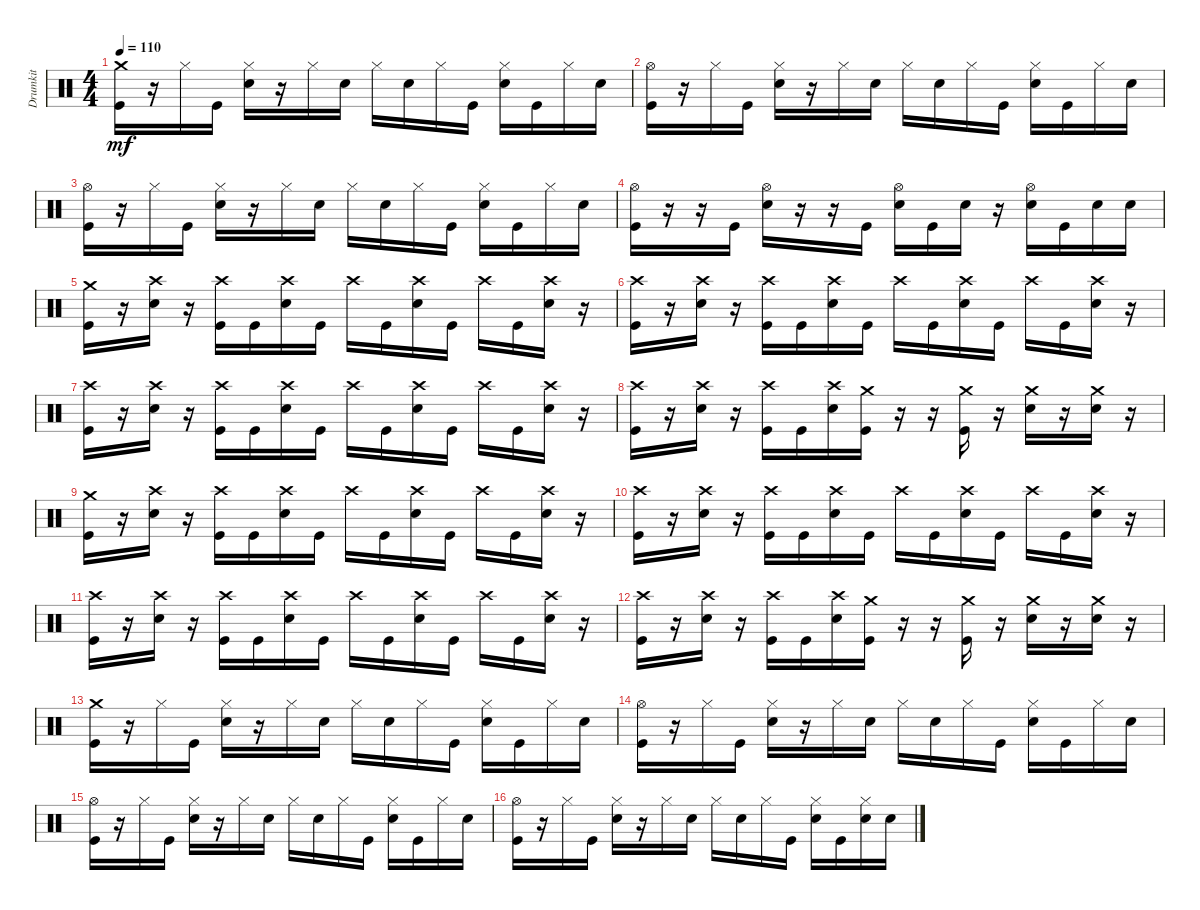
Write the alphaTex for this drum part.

\track ("Drumkit" "Drumkit") {instrument percussion}
\staff {score}
\articulation defaults
\ts (4 4)
\tempo 110
\clef neutral
\ks c
("Crash medium (hit)" "Kick (hit)").16{dy mf} r.16 "Hi-Hat (closed)".16 "Kick (hit)".16 ("Hi-Hat (closed)" "Snare (hit) 2").16 r.16 "Hi-Hat (closed)".16 "Snare (hit) 2".16 "Hi-Hat (closed)".16 "Snare (hit) 2".16 "Hi-Hat (closed)".16 "Kick (hit)".16 ("Hi-Hat (closed)" "Snare (hit) 2").16 "Kick (hit)".16 "Hi-Hat (closed)".16 "Snare (hit) 2".16 |
("Kick (hit)" "Hi-Hat (open)").16 r.16 "Hi-Hat (closed)".16 "Kick (hit)".16 ("Hi-Hat (closed)" "Snare (hit) 2").16 r.16 "Hi-Hat (closed)".16 "Snare (hit) 2".16 "Hi-Hat (closed)".16 "Snare (hit) 2".16 "Hi-Hat (closed)".16 "Kick (hit)".16 ("Hi-Hat (closed)" "Snare (hit) 2").16 "Kick (hit)".16 "Hi-Hat (closed)".16 "Snare (hit) 2".16 |
("Kick (hit)" "Hi-Hat (open)").16 r.16 "Hi-Hat (closed)".16 "Kick (hit)".16 ("Hi-Hat (closed)" "Snare (hit) 2").16 r.16 "Hi-Hat (closed)".16 "Snare (hit) 2".16 "Hi-Hat (closed)".16 "Snare (hit) 2".16 "Hi-Hat (closed)".16 "Kick (hit)".16 ("Hi-Hat (closed)" "Snare (hit) 2").16 "Kick (hit)".16 "Hi-Hat (closed)".16 "Snare (hit) 2".16 |
("Kick (hit)" "Hi-Hat (open)").16 r.16 r.16 "Kick (hit)".16 ("Hi-Hat (open)" "Snare (hit) 2").16 r.16 r.16 "Kick (hit)".16 ("Hi-Hat (open)" "Snare (hit) 2").16 "Kick (hit)".16 "Snare (hit) 2".16 r.16 ("Hi-Hat (open)" "Snare (hit) 2").16 "Kick (hit)".16 "Snare (hit) 2".16 "Snare (hit) 2".16 |
("Crash medium (hit)" "Kick (hit)").16 r.16 ("Crash high (hit)" "Snare (hit) 2").16 r.16 ("Crash high (hit)" "Kick (hit)").16 "Kick (hit)".16 ("Crash high (hit)" "Snare (hit) 2").16 "Kick (hit)".16 "Crash high (hit)".16 "Kick (hit)".16 ("Crash high (hit)" "Snare (hit) 2").16 "Kick (hit)".16 "Crash high (hit)".16 "Kick (hit)".16 ("Crash high (hit)" "Snare (hit) 2").16 r.16 |
("Kick (hit)" "Crash high (hit)").16 r.16 ("Crash high (hit)" "Snare (hit) 2").16 r.16 ("Crash high (hit)" "Kick (hit)").16 "Kick (hit)".16 ("Crash high (hit)" "Snare (hit) 2").16 "Kick (hit)".16 "Crash high (hit)".16 "Kick (hit)".16 ("Crash high (hit)" "Snare (hit) 2").16 "Kick (hit)".16 "Crash high (hit)".16 "Kick (hit)".16 ("Crash high (hit)" "Snare (hit) 2").16 r.16 |
("Kick (hit)" "Crash high (hit)").16 r.16 ("Crash high (hit)" "Snare (hit) 2").16 r.16 ("Crash high (hit)" "Kick (hit)").16 "Kick (hit)".16 ("Crash high (hit)" "Snare (hit) 2").16 "Kick (hit)".16 "Crash high (hit)".16 "Kick (hit)".16 ("Crash high (hit)" "Snare (hit) 2").16 "Kick (hit)".16 "Crash high (hit)".16 "Kick (hit)".16 ("Crash high (hit)" "Snare (hit) 2").16 r.16 |
("Kick (hit)" "Crash high (hit)").16 r.16 ("Crash high (hit)" "Snare (hit) 2").16 r.16 ("Crash high (hit)" "Kick (hit)").16 "Kick (hit)".16 ("Crash high (hit)" "Snare (hit) 2").16 ("Crash medium (hit)" "Kick (hit)").16 r.16 r.16 ("Crash medium (hit)" "Kick (hit)").16 r.16 ("Crash medium (hit)" "Snare (hit) 2").16 r.16 ("Crash medium (hit)" "Snare (hit) 2").16 r.16 |
("Crash medium (hit)" "Kick (hit)").16 r.16 ("Crash high (hit)" "Snare (hit) 2").16 r.16 ("Crash high (hit)" "Kick (hit)").16 "Kick (hit)".16 ("Crash high (hit)" "Snare (hit) 2").16 "Kick (hit)".16 "Crash high (hit)".16 "Kick (hit)".16 ("Crash high (hit)" "Snare (hit) 2").16 "Kick (hit)".16 "Crash high (hit)".16 "Kick (hit)".16 ("Crash high (hit)" "Snare (hit) 2").16 r.16 |
("Kick (hit)" "Crash high (hit)").16 r.16 ("Crash high (hit)" "Snare (hit) 2").16 r.16 ("Crash high (hit)" "Kick (hit)").16 "Kick (hit)".16 ("Crash high (hit)" "Snare (hit) 2").16 "Kick (hit)".16 "Crash high (hit)".16 "Kick (hit)".16 ("Crash high (hit)" "Snare (hit) 2").16 "Kick (hit)".16 "Crash high (hit)".16 "Kick (hit)".16 ("Crash high (hit)" "Snare (hit) 2").16 r.16 |
("Kick (hit)" "Crash high (hit)").16 r.16 ("Crash high (hit)" "Snare (hit) 2").16 r.16 ("Crash high (hit)" "Kick (hit)").16 "Kick (hit)".16 ("Crash high (hit)" "Snare (hit) 2").16 "Kick (hit)".16 "Crash high (hit)".16 "Kick (hit)".16 ("Crash high (hit)" "Snare (hit) 2").16 "Kick (hit)".16 "Crash high (hit)".16 "Kick (hit)".16 ("Crash high (hit)" "Snare (hit) 2").16 r.16 |
("Kick (hit)" "Crash high (hit)").16 r.16 ("Crash high (hit)" "Snare (hit) 2").16 r.16 ("Crash high (hit)" "Kick (hit)").16 "Kick (hit)".16 ("Crash high (hit)" "Snare (hit) 2").16 ("Crash medium (hit)" "Kick (hit)").16 r.16 r.16 ("Crash medium (hit)" "Kick (hit)").16 r.16 ("Crash medium (hit)" "Snare (hit) 2").16 r.16 ("Crash medium (hit)" "Snare (hit) 2").16 r.16 |
("Crash medium (hit)" "Kick (hit)").16 r.16 "Hi-Hat (closed)".16 "Kick (hit)".16 ("Hi-Hat (closed)" "Snare (hit) 2").16 r.16 "Hi-Hat (closed)".16 "Snare (hit) 2".16 "Hi-Hat (closed)".16 "Snare (hit) 2".16 "Hi-Hat (closed)".16 "Kick (hit)".16 ("Hi-Hat (closed)" "Snare (hit) 2").16 "Kick (hit)".16 "Hi-Hat (closed)".16 "Snare (hit) 2".16 |
("Kick (hit)" "Hi-Hat (open)").16 r.16 "Hi-Hat (closed)".16 "Kick (hit)".16 ("Hi-Hat (closed)" "Snare (hit) 2").16 r.16 "Hi-Hat (closed)".16 "Snare (hit) 2".16 "Hi-Hat (closed)".16 "Snare (hit) 2".16 "Hi-Hat (closed)".16 "Kick (hit)".16 ("Hi-Hat (closed)" "Snare (hit) 2").16 "Kick (hit)".16 "Hi-Hat (closed)".16 "Snare (hit) 2".16 |
("Kick (hit)" "Hi-Hat (open)").16 r.16 "Hi-Hat (closed)".16 "Kick (hit)".16 ("Hi-Hat (closed)" "Snare (hit) 2").16 r.16 "Hi-Hat (closed)".16 "Snare (hit) 2".16 "Hi-Hat (closed)".16 "Snare (hit) 2".16 "Hi-Hat (closed)".16 "Kick (hit)".16 ("Hi-Hat (closed)" "Snare (hit) 2").16 "Kick (hit)".16 "Hi-Hat (closed)".16 "Snare (hit) 2".16 |
("Kick (hit)" "Hi-Hat (open)").16 r.16 "Hi-Hat (closed)".16 "Kick (hit)".16 ("Hi-Hat (closed)" "Snare (hit) 2").16 r.16 "Hi-Hat (closed)".16 "Snare (hit) 2".16 "Hi-Hat (closed)".16 "Snare (hit) 2".16 "Hi-Hat (closed)".16 "Kick (hit)".16 ("Hi-Hat (closed)" "Snare (hit) 2").16 "Kick (hit)".16 ("Hi-Hat (closed)" "Snare (hit) 2").16 "Snare (hit) 2".16
